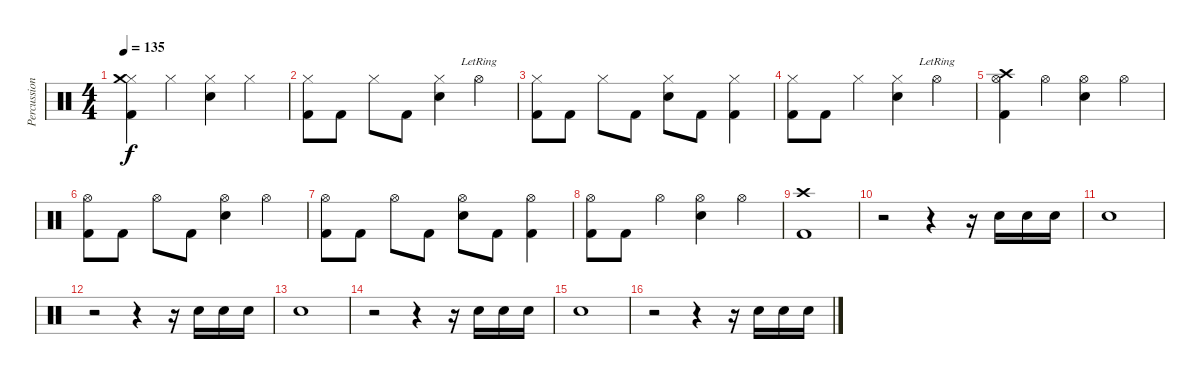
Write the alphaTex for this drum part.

\track ("Percussion" "Percussion") {instrument percussion}
\staff {score}
\articulation defaults
\ts (4 4)
\tempo 135
\clef neutral
\ks c
("Kick (hit) 2" "Hi-Hat (closed)" "Crash medium (hit)").4{dy f} "Hi-Hat (closed)".4 ("Electric Snare (hit)" "Hi-Hat (closed)").4 "Hi-Hat (closed)".4 |
("Kick (hit) 2" "Hi-Hat (closed)").8 "Kick (hit) 2".8 "Hi-Hat (closed)".8 "Kick (hit) 2".8 ("Electric Snare (hit)" "Hi-Hat (closed)").4 "Hi-Hat (open)"{lr}.4 |
("Kick (hit) 2" "Hi-Hat (closed)").8 "Kick (hit) 2".8 "Hi-Hat (closed)".8 "Kick (hit) 2".8 ("Electric Snare (hit)" "Hi-Hat (closed)").8 "Kick (hit) 2".8 ("Kick (hit) 2" "Hi-Hat (closed)").4 |
("Kick (hit) 2" "Hi-Hat (closed)").8 "Kick (hit) 2".8 "Hi-Hat (closed)".4 ("Electric Snare (hit)" "Hi-Hat (closed)").4 "Hi-Hat (open)"{lr}.4 |
("Kick (hit) 2" "Hi-Hat (open)" "Crash high (hit)").4 "Hi-Hat (open)".4 ("Electric Snare (hit)" "Hi-Hat (open)").4 "Hi-Hat (open)".4 |
("Kick (hit) 2" "Hi-Hat (open)").8 "Kick (hit) 2".8 "Hi-Hat (open)".8 "Kick (hit) 2".8 ("Electric Snare (hit)" "Hi-Hat (open)").4 "Hi-Hat (open)".4 |
("Kick (hit) 2" "Hi-Hat (open)").8 "Kick (hit) 2".8 "Hi-Hat (open)".8 "Kick (hit) 2".8 ("Electric Snare (hit)" "Hi-Hat (open)").8 "Kick (hit) 2".8 ("Kick (hit) 2" "Hi-Hat (open)").4 |
("Kick (hit) 2" "Hi-Hat (open)").8 "Kick (hit) 2".8 "Hi-Hat (open)".4 ("Electric Snare (hit)" "Hi-Hat (open)").4 "Hi-Hat (open)".4 |
("Kick (hit) 2" "Crash high (hit)").1 |
r.2 r.4 r.16 "Electric Snare (hit)".16 "Electric Snare (hit)".16 "Electric Snare (hit)".16 |
"Electric Snare (hit)".1 |
r.2 r.4 r.16 "Electric Snare (hit)".16 "Electric Snare (hit)".16 "Electric Snare (hit)".16 |
"Electric Snare (hit)".1 |
r.2 r.4 r.16 "Electric Snare (hit)".16 "Electric Snare (hit)".16 "Electric Snare (hit)".16 |
"Electric Snare (hit)".1 |
r.2 r.4 r.16 "Electric Snare (hit)".16 "Electric Snare (hit)".16 "Electric Snare (hit)".16
